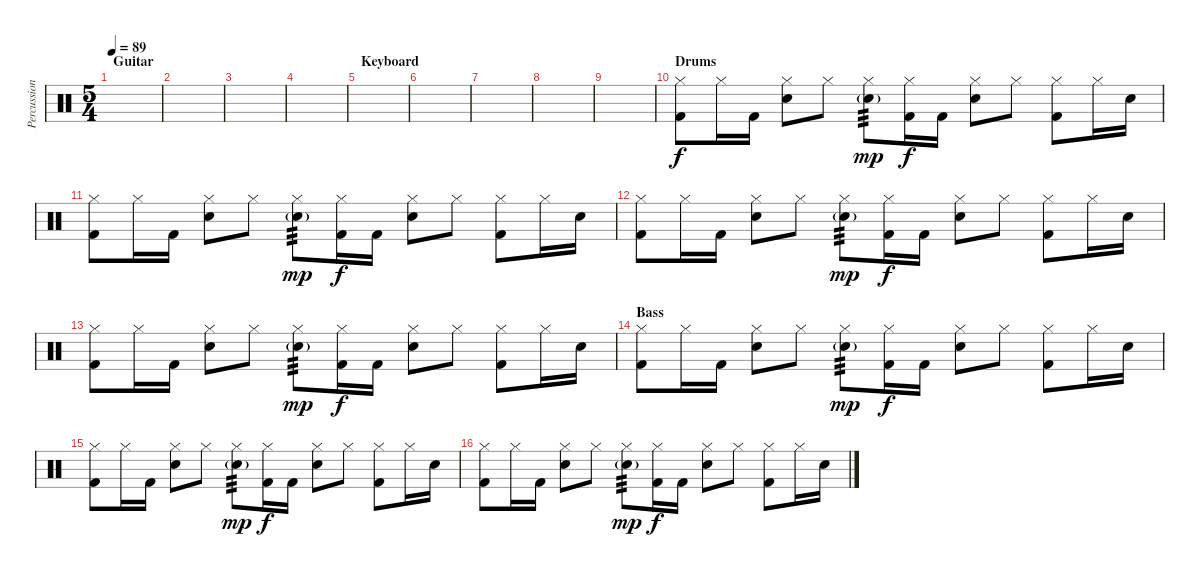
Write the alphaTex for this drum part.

\track ("Percussion" "Percussion") {instrument percussion}
\staff {score}
\articulation defaults
\ts (5 4)
\section ("" "Guitar")
\tempo 89
\clef neutral
\ks c
|
|
|
|
\section ("" "Keyboard")
|
|
|
|
|
\section ("" "Drums")
("Hi-Hat (closed)" "Kick (hit) 2").8 "Hi-Hat (closed)".16 "Kick (hit) 2".16 ("Hi-Hat (closed)" "Snare (hit) 2").8 "Hi-Hat (closed)".8 ("Hi-Hat (closed)" "Snare (hit) 2"{g}).8{tp 3 dy mp} ("Hi-Hat (closed)" "Kick (hit) 2").16{dy f} "Kick (hit) 2".16 ("Hi-Hat (closed)" "Snare (hit) 2").8 "Hi-Hat (closed)".8 ("Hi-Hat (closed)" "Kick (hit) 2").8 "Hi-Hat (closed)".16 "Snare (hit) 2".16 |
("Hi-Hat (closed)" "Kick (hit) 2").8 "Hi-Hat (closed)".16 "Kick (hit) 2".16 ("Hi-Hat (closed)" "Snare (hit) 2").8 "Hi-Hat (closed)".8 ("Hi-Hat (closed)" "Snare (hit) 2"{g}).8{tp 3 dy mp} ("Hi-Hat (closed)" "Kick (hit) 2").16{dy f} "Kick (hit) 2".16 ("Hi-Hat (closed)" "Snare (hit) 2").8 "Hi-Hat (closed)".8 ("Hi-Hat (closed)" "Kick (hit) 2").8 "Hi-Hat (closed)".16 "Snare (hit) 2".16 |
("Hi-Hat (closed)" "Kick (hit) 2").8 "Hi-Hat (closed)".16 "Kick (hit) 2".16 ("Hi-Hat (closed)" "Snare (hit) 2").8 "Hi-Hat (closed)".8 ("Hi-Hat (closed)" "Snare (hit) 2"{g}).8{tp 3 dy mp} ("Hi-Hat (closed)" "Kick (hit) 2").16{dy f} "Kick (hit) 2".16 ("Hi-Hat (closed)" "Snare (hit) 2").8 "Hi-Hat (closed)".8 ("Hi-Hat (closed)" "Kick (hit) 2").8 "Hi-Hat (closed)".16 "Snare (hit) 2".16 |
("Hi-Hat (closed)" "Kick (hit) 2").8 "Hi-Hat (closed)".16 "Kick (hit) 2".16 ("Hi-Hat (closed)" "Snare (hit) 2").8 "Hi-Hat (closed)".8 ("Hi-Hat (closed)" "Snare (hit) 2"{g}).8{tp 3 dy mp} ("Hi-Hat (closed)" "Kick (hit) 2").16{dy f} "Kick (hit) 2".16 ("Hi-Hat (closed)" "Snare (hit) 2").8 "Hi-Hat (closed)".8 ("Hi-Hat (closed)" "Kick (hit) 2").8 "Hi-Hat (closed)".16 "Snare (hit) 2".16 |
\section ("" "Bass")
("Hi-Hat (closed)" "Kick (hit) 2").8 "Hi-Hat (closed)".16 "Kick (hit) 2".16 ("Hi-Hat (closed)" "Snare (hit) 2").8 "Hi-Hat (closed)".8 ("Hi-Hat (closed)" "Snare (hit) 2"{g}).8{tp 3 dy mp} ("Hi-Hat (closed)" "Kick (hit) 2").16{dy f} "Kick (hit) 2".16 ("Hi-Hat (closed)" "Snare (hit) 2").8 "Hi-Hat (closed)".8 ("Hi-Hat (closed)" "Kick (hit) 2").8 "Hi-Hat (closed)".16 "Snare (hit) 2".16 |
("Hi-Hat (closed)" "Kick (hit) 2").8 "Hi-Hat (closed)".16 "Kick (hit) 2".16 ("Hi-Hat (closed)" "Snare (hit) 2").8 "Hi-Hat (closed)".8 ("Hi-Hat (closed)" "Snare (hit) 2"{g}).8{tp 3 dy mp} ("Hi-Hat (closed)" "Kick (hit) 2").16{dy f} "Kick (hit) 2".16 ("Hi-Hat (closed)" "Snare (hit) 2").8 "Hi-Hat (closed)".8 ("Hi-Hat (closed)" "Kick (hit) 2").8 "Hi-Hat (closed)".16 "Snare (hit) 2".16 |
("Hi-Hat (closed)" "Kick (hit) 2").8 "Hi-Hat (closed)".16 "Kick (hit) 2".16 ("Hi-Hat (closed)" "Snare (hit) 2").8 "Hi-Hat (closed)".8 ("Hi-Hat (closed)" "Snare (hit) 2"{g}).8{tp 3 dy mp} ("Hi-Hat (closed)" "Kick (hit) 2").16{dy f} "Kick (hit) 2".16 ("Hi-Hat (closed)" "Snare (hit) 2").8 "Hi-Hat (closed)".8 ("Hi-Hat (closed)" "Kick (hit) 2").8 "Hi-Hat (closed)".16 "Snare (hit) 2".16
